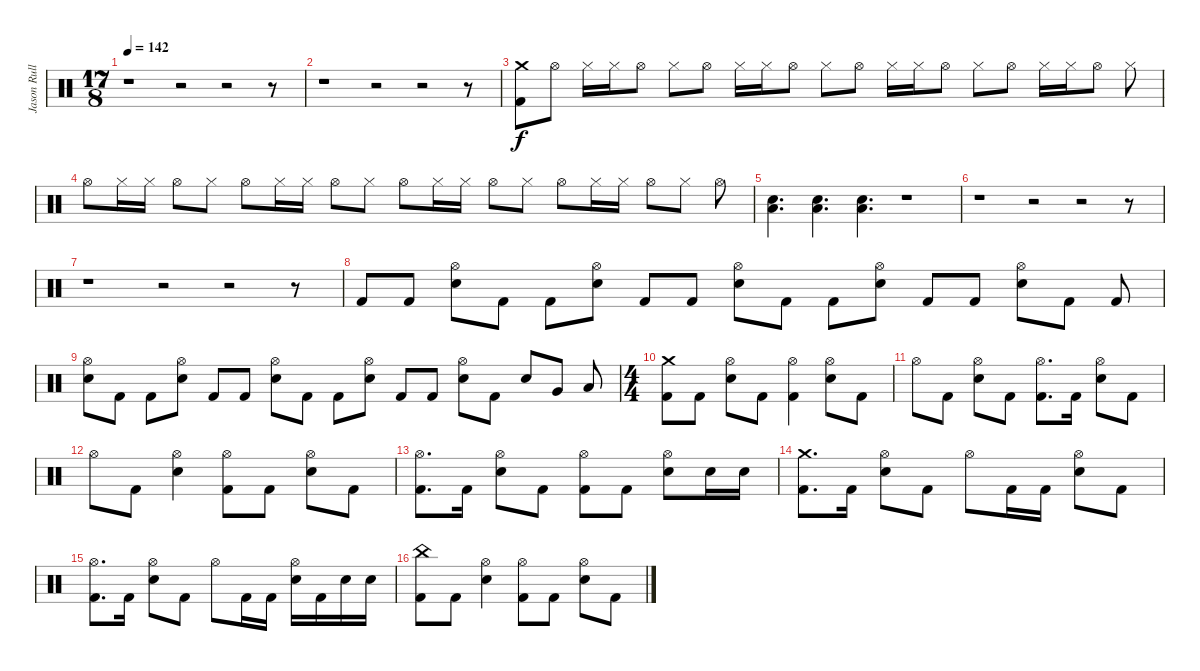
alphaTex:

\track ("Jason Rullo (drums)" "Jason Rull") {solo instrument percussion}
\staff {score}
\articulation defaults
\ts (17 8)
\tempo 142
\clef neutral
\ks c
r.1{dy f} r.2 r.2 r.8 |
r.1 r.2 r.2 r.8 |
("Kick (hit) 2" "Crash medium (hit)").8 "Hi-Hat (open)".8 "Hi-Hat (closed)".16 "Hi-Hat (closed)".16 "Hi-Hat (open)".8 "Hi-Hat (closed)".8 "Hi-Hat (open)".8 "Hi-Hat (closed)".16 "Hi-Hat (closed)".16 "Hi-Hat (open)".8 "Hi-Hat (closed)".8 "Hi-Hat (open)".8 "Hi-Hat (closed)".16 "Hi-Hat (closed)".16 "Hi-Hat (open)".8 "Hi-Hat (closed)".8 "Hi-Hat (open)".8 "Hi-Hat (closed)".16 "Hi-Hat (closed)".16 "Hi-Hat (open)".8 "Hi-Hat (closed)".8 |
"Hi-Hat (open)".8 "Hi-Hat (closed)".16 "Hi-Hat (closed)".16 "Hi-Hat (open)".8 "Hi-Hat (closed)".8 "Hi-Hat (open)".8 "Hi-Hat (closed)".16 "Hi-Hat (closed)".16 "Hi-Hat (open)".8 "Hi-Hat (closed)".8 "Hi-Hat (open)".8 "Hi-Hat (closed)".16 "Hi-Hat (closed)".16 "Hi-Hat (open)".8 "Hi-Hat (closed)".8 "Hi-Hat (open)".8 "Hi-Hat (closed)".16 "Hi-Hat (closed)".16 "Hi-Hat (open)".8 "Hi-Hat (closed)".8 "Hi-Hat (open)".8 |
("Low Tom (hit)" "Snare (hit) 2").4{d} ("Low Tom (hit)" "Snare (hit) 2").4{d} ("Low Tom (hit)" "Snare (hit) 2").4{d} r.1 |
r.1 r.2 r.2 r.8 |
r.1 r.2 r.2 r.8 |
"Kick (hit) 2".8{volume 10} "Kick (hit) 2".8{volume 10} ("Hi-Hat (open)" "Electric Snare (hit)").8{volume 10} "Kick (hit) 2".8{volume 10} "Kick (hit) 2".8{volume 11} ("Hi-Hat (open)" "Electric Snare (hit)").8{volume 11} "Kick (hit) 2".8{volume 11} "Kick (hit) 2".8{volume 11} ("Hi-Hat (open)" "Electric Snare (hit)").8{volume 11} "Kick (hit) 2".8{volume 12} "Kick (hit) 2".8{volume 12} ("Hi-Hat (open)" "Electric Snare (hit)").8{volume 12} "Kick (hit) 2".8{volume 12} "Kick (hit) 2".8{volume 12} ("Hi-Hat (open)" "Electric Snare (hit)").8{volume 12} "Kick (hit) 2".8{volume 12} "Kick (hit) 2".8{volume 13} |
("Hi-Hat (open)" "Electric Snare (hit)").8{volume 13} "Kick (hit) 2".8{volume 13} "Kick (hit) 2".8{volume 13} ("Hi-Hat (open)" "Electric Snare (hit)").8{volume 13} "Kick (hit) 2".8{volume 14} "Kick (hit) 2".8{volume 14} ("Hi-Hat (open)" "Electric Snare (hit)").8{volume 14} "Kick (hit) 2".8{volume 14} "Kick (hit) 2".8{volume 14} ("Hi-Hat (open)" "Electric Snare (hit)").8{volume 14} "Kick (hit) 2".8{volume 15} "Kick (hit) 2".8{volume 15} ("Hi-Hat (open)" "Electric Snare (hit)").8{volume 15} "Kick (hit) 2".8{volume 15} "Electric Snare (hit)".8{volume 15} "Very Low Tom (hit)".8{volume 16} "Low Floor Tom (hit)".8{volume 16} |
\ts (4 4)
("Crash medium (hit)" "Kick (hit) 2").8{volume 16} "Kick (hit) 2".8 ("Hi-Hat (open)" "Electric Snare (hit)").8 "Kick (hit) 2".8 ("Hi-Hat (open)" "Kick (hit) 2").4 ("Hi-Hat (open)" "Electric Snare (hit)").8 "Kick (hit) 2".8 |
"Hi-Hat (open)".8 "Kick (hit) 2".8 ("Hi-Hat (open)" "Electric Snare (hit)").8 "Kick (hit) 2".8 ("Hi-Hat (open)" "Kick (hit) 2").8{d} "Kick (hit) 2".16 ("Hi-Hat (open)" "Electric Snare (hit)").8 "Kick (hit) 2".8 |
"Hi-Hat (open)".8 "Kick (hit) 2".8 ("Hi-Hat (open)" "Electric Snare (hit)").4 ("Hi-Hat (open)" "Kick (hit) 2").8 "Kick (hit) 2".8 ("Hi-Hat (open)" "Electric Snare (hit)").8 "Kick (hit) 2".8 |
("Hi-Hat (open)" "Kick (hit) 2").8{d} "Kick (hit) 2".16 ("Hi-Hat (open)" "Electric Snare (hit)").8 "Kick (hit) 2".8 ("Hi-Hat (open)" "Kick (hit) 2").8 "Kick (hit) 2".8 ("Hi-Hat (open)" "Electric Snare (hit)").8 "Electric Snare (hit)".16 "Electric Snare (hit)".16 |
("Crash medium (hit)" "Kick (hit) 2").8{d} "Kick (hit) 2".16 ("Hi-Hat (open)" "Electric Snare (hit)").8 "Kick (hit) 2".8 "Hi-Hat (open)".8 "Kick (hit) 2".16 "Kick (hit) 2".16 ("Hi-Hat (open)" "Electric Snare (hit)").8 "Kick (hit) 2".8 |
("Hi-Hat (open)" "Kick (hit) 2").8{d} "Kick (hit) 2".16 ("Hi-Hat (open)" "Electric Snare (hit)").8 "Kick (hit) 2".8 "Hi-Hat (open)".8 "Kick (hit) 2".16 "Kick (hit) 2".16 ("Hi-Hat (open)" "Electric Snare (hit)").16 "Kick (hit) 2".16 "Electric Snare (hit)".16 "Electric Snare (hit)".16 |
("China (hit)" "Kick (hit) 2").8 "Kick (hit) 2".8 ("Hi-Hat (open)" "Electric Snare (hit)").4 ("Hi-Hat (open)" "Kick (hit) 2").8 "Kick (hit) 2".8 ("Hi-Hat (open)" "Electric Snare (hit)").8 "Kick (hit) 2".8
